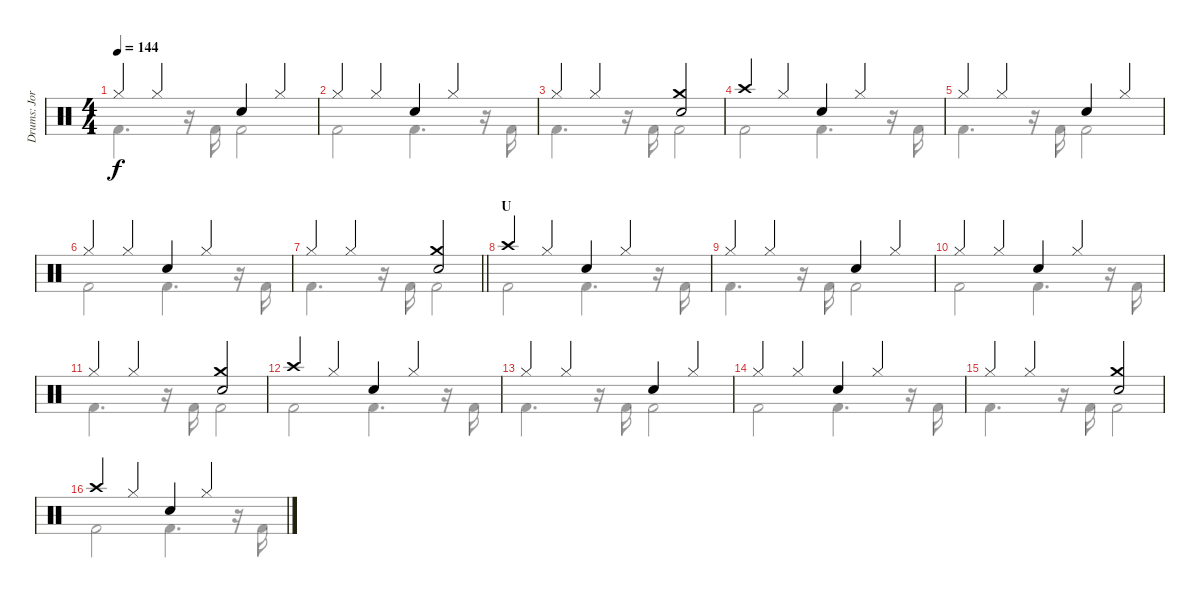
\track ("Drums: Jorg" "Drums: Jor") {instrument percussion}
\staff {score}
\articulation defaults
\voice
\ts (4 4)
\tempo 144
\clef neutral
\ks c "Hi-Hat (closed)".4{dy f} "Hi-Hat (closed)".4 "Snare (hit) 2".4 "Hi-Hat (closed)".4
|
"Hi-Hat (closed)".4 "Hi-Hat (closed)".4 "Snare (hit) 2".4 "Hi-Hat (closed)".4 |
"Hi-Hat (closed)".4 "Hi-Hat (closed)".4 ("Crash medium (hit)" "Snare (hit) 2").2 |
"Crash high (hit)".4 "Hi-Hat (closed)".4 "Snare (hit) 2".4 "Hi-Hat (closed)".4 |
"Hi-Hat (closed)".4 "Hi-Hat (closed)".4 "Snare (hit) 2".4 "Hi-Hat (closed)".4 |
"Hi-Hat (closed)".4 "Hi-Hat (closed)".4 "Snare (hit) 2".4 "Hi-Hat (closed)".4 |
\barLineRight lightlight "Hi-Hat (closed)".4 "Hi-Hat (closed)".4
("Crash medium (hit)" "Snare (hit) 2").2 |
\section ("" "U")
"Crash high (hit)".4 "Hi-Hat (closed)".4 "Snare (hit) 2".4 "Hi-Hat (closed)".4 |
"Hi-Hat (closed)".4 "Hi-Hat (closed)".4 "Snare (hit) 2".4 "Hi-Hat (closed)".4 |
"Hi-Hat (closed)".4 "Hi-Hat (closed)".4 "Snare (hit) 2".4 "Hi-Hat (closed)".4 |
"Hi-Hat (closed)".4 "Hi-Hat (closed)".4 ("Crash medium (hit)" "Snare (hit) 2").2 |
"Crash high (hit)".4 "Hi-Hat (closed)".4 "Snare (hit) 2".4 "Hi-Hat (closed)".4 |
"Hi-Hat (closed)".4 "Hi-Hat (closed)".4 "Snare (hit) 2".4 "Hi-Hat (closed)".4 |
"Hi-Hat (closed)".4 "Hi-Hat (closed)".4 "Snare (hit) 2".4 "Hi-Hat (closed)".4 |
"Hi-Hat (closed)".4 "Hi-Hat (closed)".4 ("Crash medium (hit)" "Snare (hit) 2").2 |
"Crash high (hit)".4 "Hi-Hat (closed)".4 "Snare (hit) 2".4 "Hi-Hat (closed)".4
\voice
\clef neutral
\ottava regular
\simile none
\ks c "Kick (hit) 2".4{d dy f}
r.16 "Kick (hit) 2".16 "Kick (hit) 2".2 |
"Kick (hit) 2".2 "Kick (hit) 2".4{d} r.16 "Kick (hit) 2".16 |
"Kick (hit) 2".4{d} r.16 "Kick (hit) 2".16 "Kick (hit) 2".2 |
"Kick (hit) 2".2 "Kick (hit) 2".4{d} r.16 "Kick (hit) 2".16 |
"Kick (hit) 2".4{d} r.16 "Kick (hit) 2".16 "Kick (hit) 2".2 |
"Kick (hit) 2".2 "Kick (hit) 2".4{d} r.16 "Kick (hit) 2".16 |
\barLineRight lightlight "Kick (hit) 2".4{d}
r.16 "Kick (hit) 2".16 "Kick (hit) 2".2 |
"Kick (hit) 2".2 "Kick (hit) 2".4{d} r.16 "Kick (hit) 2".16 |
"Kick (hit) 2".4{d} r.16 "Kick (hit) 2".16 "Kick (hit) 2".2 |
"Kick (hit) 2".2 "Kick (hit) 2".4{d} r.16 "Kick (hit) 2".16 |
"Kick (hit) 2".4{d} r.16 "Kick (hit) 2".16 "Kick (hit) 2".2 |
"Kick (hit) 2".2 "Kick (hit) 2".4{d} r.16 "Kick (hit) 2".16 |
"Kick (hit) 2".4{d} r.16 "Kick (hit) 2".16 "Kick (hit) 2".2 |
"Kick (hit) 2".2 "Kick (hit) 2".4{d} r.16 "Kick (hit) 2".16 |
"Kick (hit) 2".4{d} r.16 "Kick (hit) 2".16 "Kick (hit) 2".2 |
"Kick (hit) 2".2 "Kick (hit) 2".4{d} r.16 "Kick (hit) 2".16
